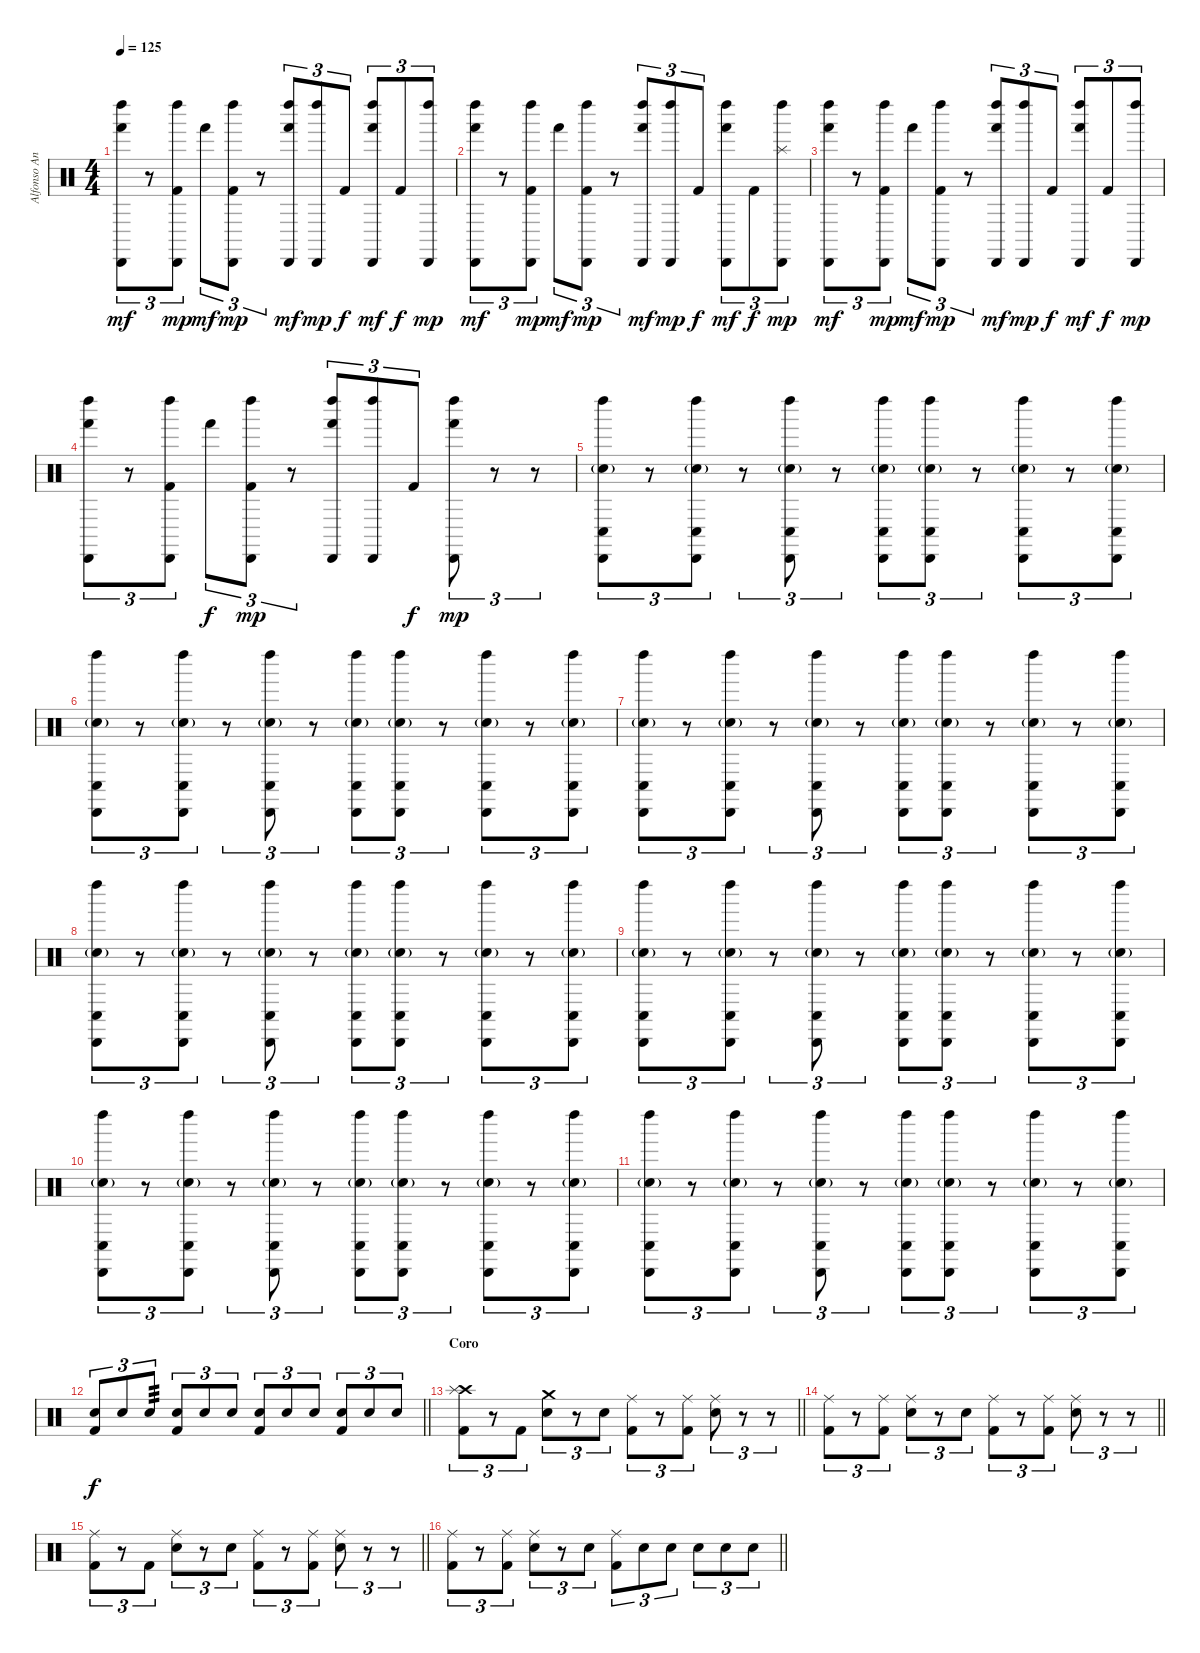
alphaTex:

\track ("Alfonso Andre" "Alfonso An") {instrument percussion}
\staff {score}
\articulation defaults
\ts (4 4)
\tempo 125
\clef neutral
\ks c
("Left Maraca (hit)" "Cabasa (hit)" "Hand (hit)").8{tu (3 2) dy mf} r.8{tu (3 2)} ("Left Maraca (hit)" "Cabasa (hit)" "Kick (hit) 2").8{tu (3 2) dy mp} "Hand (hit)".8{tu (3 2) dy mf} ("Left Maraca (hit)" "Cabasa (hit)" "Kick (hit) 2").8{tu (3 2) dy mp} r.8{tu (3 2)} ("Left Maraca (hit)" "Cabasa (hit)" "Hand (hit)").8{tu (3 2) dy mf} ("Left Maraca (hit)" "Cabasa (hit)").8{tu (3 2) dy mp} "Kick (hit) 2".8{tu (3 2) dy f} ("Left Maraca (hit)" "Cabasa (hit)" "Hand (hit)").8{tu (3 2) dy mf} "Kick (hit) 2".8{tu (3 2) dy f} ("Left Maraca (hit)" "Cabasa (hit)").8{tu (3 2) dy mp} |
("Left Maraca (hit)" "Cabasa (hit)" "Hand (hit)").8{tu (3 2) dy mf} r.8{tu (3 2)} ("Left Maraca (hit)" "Cabasa (hit)" "Kick (hit) 2").8{tu (3 2) dy mp} "Hand (hit)".8{tu (3 2) dy mf} ("Left Maraca (hit)" "Cabasa (hit)" "Kick (hit) 2").8{tu (3 2) dy mp} r.8{tu (3 2)} ("Left Maraca (hit)" "Cabasa (hit)" "Hand (hit)").8{tu (3 2) dy mf} ("Left Maraca (hit)" "Cabasa (hit)").8{tu (3 2) dy mp} "Kick (hit) 2".8{tu (3 2) dy f} ("Left Maraca (hit)" "Cabasa (hit)" "Hand (hit)").8{tu (3 2) dy mf} "Kick (hit) 2".8{tu (3 2) dy f} ("Left Maraca (hit)" "Cabasa (hit)" "Splash (hit)").8{tu (3 2) dy mp} |
("Left Maraca (hit)" "Cabasa (hit)" "Hand (hit)").8{tu (3 2) dy mf} r.8{tu (3 2)} ("Left Maraca (hit)" "Cabasa (hit)" "Kick (hit) 2").8{tu (3 2) dy mp} "Hand (hit)".8{tu (3 2) dy mf} ("Left Maraca (hit)" "Cabasa (hit)" "Kick (hit) 2").8{tu (3 2) dy mp} r.8{tu (3 2)} ("Left Maraca (hit)" "Cabasa (hit)" "Hand (hit)").8{tu (3 2) dy mf} ("Left Maraca (hit)" "Cabasa (hit)").8{tu (3 2) dy mp} "Kick (hit) 2".8{tu (3 2) dy f} ("Left Maraca (hit)" "Cabasa (hit)" "Hand (hit)").8{tu (3 2) dy mf} "Kick (hit) 2".8{tu (3 2) dy f} ("Left Maraca (hit)" "Cabasa (hit)").8{tu (3 2) dy mp} |
("Left Maraca (hit)" "Cabasa (hit)" "Hand (hit)").8{tu (3 2)} r.8{tu (3 2)} ("Left Maraca (hit)" "Cabasa (hit)" "Kick (hit) 2").8{tu (3 2)} "Hand (hit)".8{tu (3 2) dy f} ("Left Maraca (hit)" "Cabasa (hit)" "Kick (hit) 2").8{tu (3 2) dy mp} r.8{tu (3 2)} ("Left Maraca (hit)" "Cabasa (hit)" "Hand (hit)").8{tu (3 2)} ("Left Maraca (hit)" "Cabasa (hit)").8{tu (3 2)} "Kick (hit) 2".8{tu (3 2) dy f} ("Left Maraca (hit)" "Cabasa (hit)" "Hand (hit)").8{tu (3 2) dy mp} r.8{tu (3 2)} r.8{tu (3 2)} |
("Left Maraca (hit)" "Cabasa (hit)" "Conga low (hit)" "Electric Snare (hit)"{g}).8{tu (3 2)} r.8{tu (3 2)} ("Left Maraca (hit)" "Cabasa (hit)" "Conga low (hit)" "Electric Snare (hit)"{g}).8{tu (3 2)} r.8{tu (3 2)} ("Left Maraca (hit)" "Cabasa (hit)" "Conga low (hit)" "Electric Snare (hit)"{g}).8{tu (3 2)} r.8{tu (3 2)} ("Left Maraca (hit)" "Cabasa (hit)" "Conga low (hit)" "Electric Snare (hit)"{g}).8{tu (3 2)} ("Left Maraca (hit)" "Cabasa (hit)" "Conga low (hit)" "Electric Snare (hit)"{g}).8{tu (3 2)} r.8{tu (3 2)} ("Left Maraca (hit)" "Cabasa (hit)" "Conga low (hit)" "Electric Snare (hit)"{g}).8{tu (3 2)} r.8{tu (3 2)} ("Left Maraca (hit)" "Cabasa (hit)" "Conga low (hit)" "Electric Snare (hit)"{g}).8{tu (3 2)} |
("Left Maraca (hit)" "Cabasa (hit)" "Conga low (hit)" "Electric Snare (hit)"{g}).8{tu (3 2)} r.8{tu (3 2)} ("Left Maraca (hit)" "Cabasa (hit)" "Conga low (hit)" "Electric Snare (hit)"{g}).8{tu (3 2)} r.8{tu (3 2)} ("Left Maraca (hit)" "Cabasa (hit)" "Conga low (hit)" "Electric Snare (hit)"{g}).8{tu (3 2)} r.8{tu (3 2)} ("Left Maraca (hit)" "Cabasa (hit)" "Conga low (hit)" "Electric Snare (hit)"{g}).8{tu (3 2)} ("Left Maraca (hit)" "Cabasa (hit)" "Conga low (hit)" "Electric Snare (hit)"{g}).8{tu (3 2)} r.8{tu (3 2)} ("Left Maraca (hit)" "Cabasa (hit)" "Conga low (hit)" "Electric Snare (hit)"{g}).8{tu (3 2)} r.8{tu (3 2)} ("Left Maraca (hit)" "Cabasa (hit)" "Conga low (hit)" "Electric Snare (hit)"{g}).8{tu (3 2)} |
("Left Maraca (hit)" "Cabasa (hit)" "Conga low (hit)" "Electric Snare (hit)"{g}).8{tu (3 2)} r.8{tu (3 2)} ("Left Maraca (hit)" "Cabasa (hit)" "Conga low (hit)" "Electric Snare (hit)"{g}).8{tu (3 2)} r.8{tu (3 2)} ("Left Maraca (hit)" "Cabasa (hit)" "Conga low (hit)" "Electric Snare (hit)"{g}).8{tu (3 2)} r.8{tu (3 2)} ("Left Maraca (hit)" "Cabasa (hit)" "Conga low (hit)" "Electric Snare (hit)"{g}).8{tu (3 2)} ("Left Maraca (hit)" "Cabasa (hit)" "Conga low (hit)" "Electric Snare (hit)"{g}).8{tu (3 2)} r.8{tu (3 2)} ("Left Maraca (hit)" "Cabasa (hit)" "Conga low (hit)" "Electric Snare (hit)"{g}).8{tu (3 2)} r.8{tu (3 2)} ("Left Maraca (hit)" "Cabasa (hit)" "Conga low (hit)" "Electric Snare (hit)"{g}).8{tu (3 2)} |
("Left Maraca (hit)" "Cabasa (hit)" "Conga low (hit)" "Electric Snare (hit)"{g}).8{tu (3 2)} r.8{tu (3 2)} ("Left Maraca (hit)" "Cabasa (hit)" "Conga low (hit)" "Electric Snare (hit)"{g}).8{tu (3 2)} r.8{tu (3 2)} ("Left Maraca (hit)" "Cabasa (hit)" "Conga low (hit)" "Electric Snare (hit)"{g}).8{tu (3 2)} r.8{tu (3 2)} ("Left Maraca (hit)" "Cabasa (hit)" "Conga low (hit)" "Electric Snare (hit)"{g}).8{tu (3 2)} ("Left Maraca (hit)" "Cabasa (hit)" "Conga low (hit)" "Electric Snare (hit)"{g}).8{tu (3 2)} r.8{tu (3 2)} ("Left Maraca (hit)" "Cabasa (hit)" "Conga low (hit)" "Electric Snare (hit)"{g}).8{tu (3 2)} r.8{tu (3 2)} ("Left Maraca (hit)" "Cabasa (hit)" "Conga low (hit)" "Electric Snare (hit)"{g}).8{tu (3 2)} |
("Left Maraca (hit)" "Cabasa (hit)" "Conga low (hit)" "Electric Snare (hit)"{g}).8{tu (3 2)} r.8{tu (3 2)} ("Left Maraca (hit)" "Cabasa (hit)" "Conga low (hit)" "Electric Snare (hit)"{g}).8{tu (3 2)} r.8{tu (3 2)} ("Left Maraca (hit)" "Cabasa (hit)" "Conga low (hit)" "Electric Snare (hit)"{g}).8{tu (3 2)} r.8{tu (3 2)} ("Left Maraca (hit)" "Cabasa (hit)" "Conga low (hit)" "Electric Snare (hit)"{g}).8{tu (3 2)} ("Left Maraca (hit)" "Cabasa (hit)" "Conga low (hit)" "Electric Snare (hit)"{g}).8{tu (3 2)} r.8{tu (3 2)} ("Left Maraca (hit)" "Cabasa (hit)" "Conga low (hit)" "Electric Snare (hit)"{g}).8{tu (3 2)} r.8{tu (3 2)} ("Left Maraca (hit)" "Cabasa (hit)" "Conga low (hit)" "Electric Snare (hit)"{g}).8{tu (3 2)} |
("Left Maraca (hit)" "Cabasa (hit)" "Conga low (hit)" "Electric Snare (hit)"{g}).8{tu (3 2)} r.8{tu (3 2)} ("Left Maraca (hit)" "Cabasa (hit)" "Conga low (hit)" "Electric Snare (hit)"{g}).8{tu (3 2)} r.8{tu (3 2)} ("Left Maraca (hit)" "Cabasa (hit)" "Conga low (hit)" "Electric Snare (hit)"{g}).8{tu (3 2)} r.8{tu (3 2)} ("Left Maraca (hit)" "Cabasa (hit)" "Conga low (hit)" "Electric Snare (hit)"{g}).8{tu (3 2)} ("Left Maraca (hit)" "Cabasa (hit)" "Conga low (hit)" "Electric Snare (hit)"{g}).8{tu (3 2)} r.8{tu (3 2)} ("Left Maraca (hit)" "Cabasa (hit)" "Conga low (hit)" "Electric Snare (hit)"{g}).8{tu (3 2)} r.8{tu (3 2)} ("Left Maraca (hit)" "Cabasa (hit)" "Conga low (hit)" "Electric Snare (hit)"{g}).8{tu (3 2)} |
("Left Maraca (hit)" "Cabasa (hit)" "Conga low (hit)" "Electric Snare (hit)"{g}).8{tu (3 2)} r.8{tu (3 2)} ("Left Maraca (hit)" "Cabasa (hit)" "Conga low (hit)" "Electric Snare (hit)"{g}).8{tu (3 2)} r.8{tu (3 2)} ("Left Maraca (hit)" "Cabasa (hit)" "Conga low (hit)" "Electric Snare (hit)"{g}).8{tu (3 2)} r.8{tu (3 2)} ("Left Maraca (hit)" "Cabasa (hit)" "Conga low (hit)" "Electric Snare (hit)"{g}).8{tu (3 2)} ("Left Maraca (hit)" "Cabasa (hit)" "Conga low (hit)" "Electric Snare (hit)"{g}).8{tu (3 2)} r.8{tu (3 2)} ("Left Maraca (hit)" "Cabasa (hit)" "Conga low (hit)" "Electric Snare (hit)"{g}).8{tu (3 2)} r.8{tu (3 2)} ("Left Maraca (hit)" "Cabasa (hit)" "Conga low (hit)" "Electric Snare (hit)"{g}).8{tu (3 2)} |
\barLineRight lightlight
("Kick (hit) 2" "Electric Snare (hit)").8{tu (3 2) dy f} "Electric Snare (hit)".8{tu (3 2)} "Electric Snare (hit)".8{tu (3 2) tp 3} ("Kick (hit) 2" "Electric Snare (hit)").8{tu (3 2)} "Electric Snare (hit)".8{tu (3 2)} "Electric Snare (hit)".8{tu (3 2)} ("Kick (hit) 2" "Electric Snare (hit)").8{tu (3 2)} "Electric Snare (hit)".8{tu (3 2)} "Electric Snare (hit)".8{tu (3 2)} ("Kick (hit) 2" "Electric Snare (hit)").8{tu (3 2)} "Electric Snare (hit)".8{tu (3 2)} "Electric Snare (hit)".8{tu (3 2)} |
\section ("" "Coro")
\barLineRight lightlight
("Crash high (hit)" "Splash (hit)" "Kick (hit) 2").8{tu (3 2)} r.8{tu (3 2)} "Kick (hit) 2".8{tu (3 2)} ("Crash medium (hit)" "Electric Snare (hit)").8{tu (3 2)} r.8{tu (3 2)} "Electric Snare (hit)".8{tu (3 2)} ("Ride (middle)" "Kick (hit) 2").8{tu (3 2)} r.8{tu (3 2)} ("Ride (middle)" "Kick (hit) 2").8{tu (3 2)} ("Ride (middle)" "Electric Snare (hit)").8{tu (3 2)} r.8{tu (3 2)} r.8{tu (3 2)} |
\barLineRight lightlight
("Ride (middle)" "Kick (hit) 2").8{tu (3 2)} r.8{tu (3 2)} ("Ride (middle)" "Kick (hit) 2").8{tu (3 2)} ("Ride (middle)" "Electric Snare (hit)").8{tu (3 2)} r.8{tu (3 2)} "Electric Snare (hit)".8{tu (3 2)} ("Ride (middle)" "Kick (hit) 2").8{tu (3 2)} r.8{tu (3 2)} ("Ride (middle)" "Kick (hit) 2").8{tu (3 2)} ("Ride (middle)" "Electric Snare (hit)").8{tu (3 2)} r.8{tu (3 2)} r.8{tu (3 2)} |
\barLineRight lightlight
("Ride (middle)" "Kick (hit) 2").8{tu (3 2)} r.8{tu (3 2)} "Kick (hit) 2".8{tu (3 2)} ("Ride (middle)" "Electric Snare (hit)").8{tu (3 2)} r.8{tu (3 2)} "Electric Snare (hit)".8{tu (3 2)} ("Ride (middle)" "Kick (hit) 2").8{tu (3 2)} r.8{tu (3 2)} ("Ride (middle)" "Kick (hit) 2").8{tu (3 2)} ("Ride (middle)" "Electric Snare (hit)").8{tu (3 2)} r.8{tu (3 2)} r.8{tu (3 2)} |
\barLineRight lightlight
("Ride (middle)" "Kick (hit) 2").8{tu (3 2)} r.8{tu (3 2)} ("Ride (middle)" "Kick (hit) 2").8{tu (3 2)} ("Ride (middle)" "Electric Snare (hit)").8{tu (3 2)} r.8{tu (3 2)} "Electric Snare (hit)".8{tu (3 2)} ("Ride (middle)" "Kick (hit) 2").8{tu (3 2)} "Electric Snare (hit)".8{tu (3 2)} "Electric Snare (hit)".8{tu (3 2)} "Electric Snare (hit)".8{tu (3 2)} "Electric Snare (hit)".8{tu (3 2)} "Electric Snare (hit)".8{tu (3 2)}
